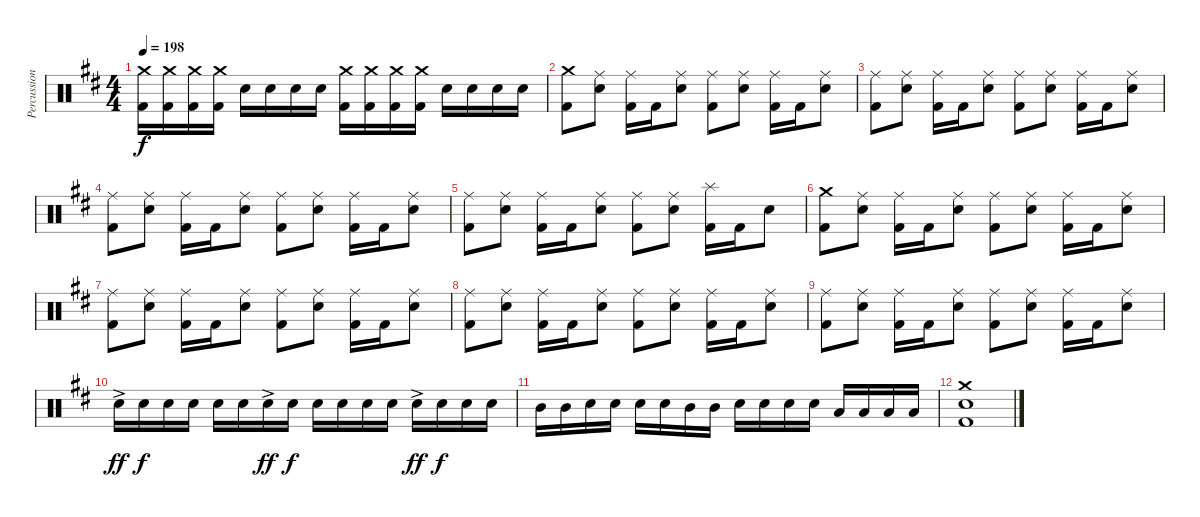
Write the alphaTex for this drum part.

\track ("Percussion" "Percussion") {instrument percussion}
\staff {score}
\articulation defaults
\ts (4 4)
\tempo 198
\clef neutral
\ks bminor
("Crash medium (hit)" "Kick (hit) 2").16{dy f} ("Crash medium (hit)" "Kick (hit) 2").16 ("Crash medium (hit)" "Kick (hit) 2").16 ("Crash medium (hit)" "Kick (hit) 2").16 "Snare (hit) 2".16 "Snare (hit) 2".16 "Snare (hit) 2".16 "Snare (hit) 2".16 ("Crash medium (hit)" "Kick (hit) 2").16 ("Crash medium (hit)" "Kick (hit) 2").16 ("Crash medium (hit)" "Kick (hit) 2").16 ("Crash medium (hit)" "Kick (hit) 2").16 "Snare (hit) 2".16 "Snare (hit) 2".16 "Snare (hit) 2".16 "Snare (hit) 2".16 |
("Crash medium (hit)" "Kick (hit) 2").8 ("Ride (middle)" "Snare (hit) 2").8 ("Ride (middle)" "Kick (hit) 2").16 "Kick (hit) 2".16 ("Ride (middle)" "Snare (hit) 2").8 ("Ride (middle)" "Kick (hit) 2").8 ("Ride (middle)" "Snare (hit) 2").8 ("Ride (middle)" "Kick (hit) 2").16 "Kick (hit) 2".16 ("Ride (middle)" "Snare (hit) 2").8 |
("Ride (middle)" "Kick (hit) 2").8 ("Ride (middle)" "Snare (hit) 2").8 ("Ride (middle)" "Kick (hit) 2").16 "Kick (hit) 2".16 ("Ride (middle)" "Snare (hit) 2").8 ("Ride (middle)" "Kick (hit) 2").8 ("Ride (middle)" "Snare (hit) 2").8 ("Ride (middle)" "Kick (hit) 2").16 "Kick (hit) 2".16 ("Ride (middle)" "Snare (hit) 2").8 |
("Ride (middle)" "Kick (hit) 2").8 ("Ride (middle)" "Snare (hit) 2").8 ("Ride (middle)" "Kick (hit) 2").16 "Kick (hit) 2".16 ("Ride (middle)" "Snare (hit) 2").8 ("Ride (middle)" "Kick (hit) 2").8 ("Ride (middle)" "Snare (hit) 2").8 ("Ride (middle)" "Kick (hit) 2").16 "Kick (hit) 2".16 ("Ride (middle)" "Snare (hit) 2").8 |
("Ride (middle)" "Kick (hit) 2").8 ("Ride (middle)" "Snare (hit) 2").8 ("Ride (middle)" "Kick (hit) 2").16 "Kick (hit) 2".16 ("Ride (middle)" "Snare (hit) 2").8 ("Ride (middle)" "Kick (hit) 2").8 ("Ride (middle)" "Snare (hit) 2").8 ("Splash (hit)" "Kick (hit) 2").16 "Kick (hit) 2".16 "Snare (hit) 2".8 |
("Crash medium (hit)" "Kick (hit) 2").8 ("Ride (middle)" "Snare (hit) 2").8 ("Ride (middle)" "Kick (hit) 2").16 "Kick (hit) 2".16 ("Ride (middle)" "Snare (hit) 2").8 ("Ride (middle)" "Kick (hit) 2").8 ("Ride (middle)" "Snare (hit) 2").8 ("Ride (middle)" "Kick (hit) 2").16 "Kick (hit) 2".16 ("Ride (middle)" "Snare (hit) 2").8 |
("Ride (middle)" "Kick (hit) 2").8 ("Ride (middle)" "Snare (hit) 2").8 ("Ride (middle)" "Kick (hit) 2").16 "Kick (hit) 2".16 ("Ride (middle)" "Snare (hit) 2").8 ("Ride (middle)" "Kick (hit) 2").8 ("Ride (middle)" "Snare (hit) 2").8 ("Ride (middle)" "Kick (hit) 2").16 "Kick (hit) 2".16 ("Ride (middle)" "Snare (hit) 2").8 |
("Ride (middle)" "Kick (hit) 2").8 ("Ride (middle)" "Snare (hit) 2").8 ("Ride (middle)" "Kick (hit) 2").16 "Kick (hit) 2".16 ("Ride (middle)" "Snare (hit) 2").8 ("Ride (middle)" "Kick (hit) 2").8 ("Ride (middle)" "Snare (hit) 2").8 ("Ride (middle)" "Kick (hit) 2").16 "Kick (hit) 2".16 ("Ride (middle)" "Snare (hit) 2").8 |
("Ride (middle)" "Kick (hit) 2").8 ("Ride (middle)" "Snare (hit) 2").8 ("Ride (middle)" "Kick (hit) 2").16 "Kick (hit) 2".16 ("Ride (middle)" "Snare (hit) 2").8 ("Ride (middle)" "Kick (hit) 2").8 ("Ride (middle)" "Snare (hit) 2").8 ("Ride (middle)" "Kick (hit) 2").16 "Kick (hit) 2".16 ("Ride (middle)" "Snare (hit) 2").8 |
"Snare (hit) 2"{ac}.16{dy ff} "Snare (hit) 2".16{dy f} "Snare (hit) 2".16 "Snare (hit) 2".16 "Snare (hit) 2".16 "Snare (hit) 2".16 "Snare (hit) 2"{ac}.16{dy ff} "Snare (hit) 2".16{dy f} "Snare (hit) 2".16 "Snare (hit) 2".16 "Snare (hit) 2".16 "Snare (hit) 2".16 "Snare (hit) 2"{ac}.16{dy ff} "Snare (hit) 2".16{dy f} "Snare (hit) 2".16 "Snare (hit) 2".16 |
"Mid Tom (hit)".16 "Mid Tom (hit)".16 "Snare (hit) 2".16 "Snare (hit) 2".16 "Snare (hit) 2".16 "Snare (hit) 2".16 "Mid Tom (hit)".16 "Mid Tom (hit)".16 "Snare (hit) 2".16 "Snare (hit) 2".16 "Snare (hit) 2".16 "Snare (hit) 2".16 "Low Tom (hit)".16 "Low Tom (hit)".16 "Low Tom (hit)".16 "Low Tom (hit)".16 |
("Crash medium (hit)" "Snare (hit) 2" "Kick (hit) 2").1
